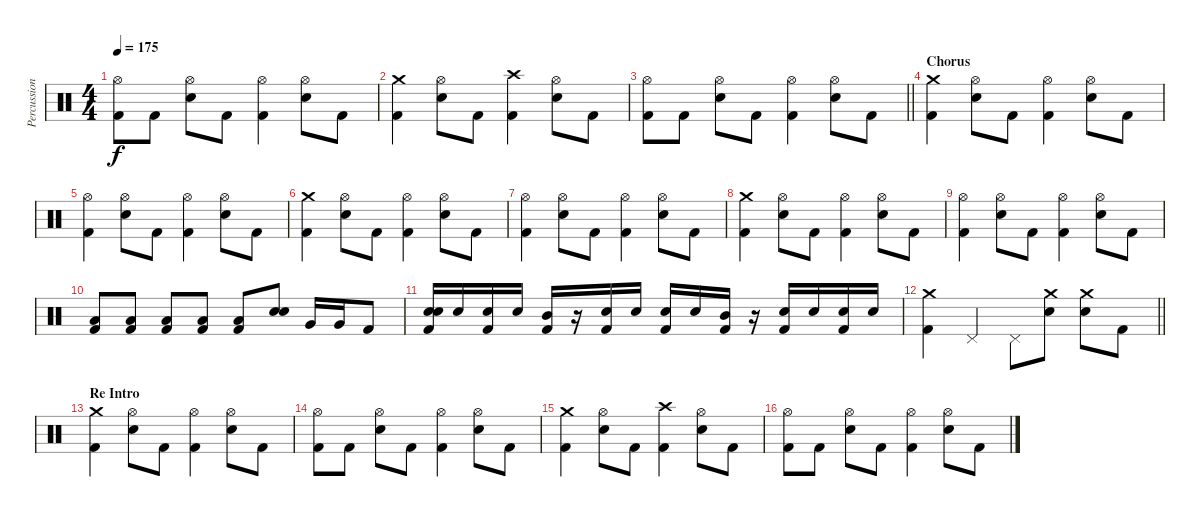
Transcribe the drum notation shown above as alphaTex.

\track ("Percussion" "Percussion") {instrument percussion}
\staff {score}
\articulation defaults
\ts (4 4)
\tempo 175
\clef neutral
\ks c
("Hi-Hat (open)" "Kick (hit) 2").8{dy f} "Kick (hit) 2".8 ("Hi-Hat (open)" "Electric Snare (hit)").8 "Kick (hit) 2".8 ("Hi-Hat (open)" "Kick (hit) 2").4 ("Hi-Hat (open)" "Electric Snare (hit)").8 "Kick (hit) 2".8 |
("Crash medium (hit)" "Kick (hit) 2").4 ("Hi-Hat (open)" "Electric Snare (hit)").8 "Kick (hit) 2".8 ("Crash high (hit)" "Kick (hit) 2").4 ("Hi-Hat (open)" "Electric Snare (hit)").8 "Kick (hit) 2".8 |
\barLineRight lightlight
("Hi-Hat (open)" "Kick (hit) 2").8 "Kick (hit) 2".8 ("Hi-Hat (open)" "Electric Snare (hit)").8 "Kick (hit) 2".8 ("Hi-Hat (open)" "Kick (hit) 2").4 ("Hi-Hat (open)" "Electric Snare (hit)").8 "Kick (hit) 2".8 |
\section ("" "Chorus")
("Crash medium (hit)" "Kick (hit) 2").4 ("Hi-Hat (open)" "Electric Snare (hit)").8 "Kick (hit) 2".8 ("Hi-Hat (open)" "Kick (hit) 2").4 ("Hi-Hat (open)" "Electric Snare (hit)").8 "Kick (hit) 2".8 |
("Hi-Hat (open)" "Kick (hit) 2").4 ("Hi-Hat (open)" "Electric Snare (hit)").8 "Kick (hit) 2".8 ("Hi-Hat (open)" "Kick (hit) 2").4 ("Hi-Hat (open)" "Electric Snare (hit)").8 "Kick (hit) 2".8 |
("Crash medium (hit)" "Kick (hit) 2").4 ("Hi-Hat (open)" "Electric Snare (hit)").8 "Kick (hit) 2".8 ("Hi-Hat (open)" "Kick (hit) 2").4 ("Hi-Hat (open)" "Electric Snare (hit)").8 "Kick (hit) 2".8 |
("Hi-Hat (open)" "Kick (hit) 2").4 ("Hi-Hat (open)" "Electric Snare (hit)").8 "Kick (hit) 2".8 ("Hi-Hat (open)" "Kick (hit) 2").4 ("Hi-Hat (open)" "Electric Snare (hit)").8 "Kick (hit) 2".8 |
("Crash medium (hit)" "Kick (hit) 2").4 ("Hi-Hat (open)" "Electric Snare (hit)").8 "Kick (hit) 2".8 ("Hi-Hat (open)" "Kick (hit) 2").4 ("Hi-Hat (open)" "Electric Snare (hit)").8 "Kick (hit) 2".8 |
("Hi-Hat (open)" "Kick (hit) 2").4 ("Hi-Hat (open)" "Electric Snare (hit)").8 "Kick (hit) 2".8 ("Hi-Hat (open)" "Kick (hit) 2").4 ("Hi-Hat (open)" "Electric Snare (hit)").8 "Kick (hit) 2".8 |
("Low Floor Tom (hit)" "Kick (hit) 2").8 ("Low Floor Tom (hit)" "Kick (hit) 2").8 ("Low Floor Tom (hit)" "Kick (hit) 2").8 ("Low Floor Tom (hit)" "Kick (hit) 2").8 ("Low Floor Tom (hit)" "Kick (hit) 2").8 ("Electric Snare (hit)" "Electric Snare (hit)").8 "Very Low Tom (hit)".16 "Very Low Tom (hit)".16 "Kick (hit) 2".8 |
("Electric Snare (hit)" "Electric Snare (hit)" "Kick (hit) 2").16 "Electric Snare (hit)".16 ("Electric Snare (hit)" "Kick (hit) 2").16 "Electric Snare (hit)".16 ("Mid Tom (hit)" "Kick (hit) 2").16 r.16 ("Electric Snare (hit)" "Kick (hit) 2").16 "Electric Snare (hit)".16 ("Electric Snare (hit)" "Kick (hit) 2").16 "Electric Snare (hit)".16 ("Mid Tom (hit)" "Kick (hit) 2").16 r.16 ("Electric Snare (hit)" "Kick (hit) 2").16 "Electric Snare (hit)".16 ("Electric Snare (hit)" "Kick (hit) 2").16 "Electric Snare (hit)".16 |
\barLineRight lightlight
("Crash medium (hit)" "Kick (hit) 2").4 "Pedal Hi-Hat (hit)".4 "Pedal Hi-Hat (hit)".8 ("Crash medium (hit)" "Electric Snare (hit)").8 ("Crash medium (hit)" "Electric Snare (hit)").8 "Kick (hit) 2".8 |
\section ("" "Re Intro")
("Crash medium (hit)" "Kick (hit) 2").4 ("Hi-Hat (open)" "Electric Snare (hit)").8 "Kick (hit) 2".8 ("Hi-Hat (open)" "Kick (hit) 2").4 ("Hi-Hat (open)" "Electric Snare (hit)").8 "Kick (hit) 2".8 |
("Hi-Hat (open)" "Kick (hit) 2").8 "Kick (hit) 2".8 ("Hi-Hat (open)" "Electric Snare (hit)").8 "Kick (hit) 2".8 ("Hi-Hat (open)" "Kick (hit) 2").4 ("Hi-Hat (open)" "Electric Snare (hit)").8 "Kick (hit) 2".8 |
("Crash medium (hit)" "Kick (hit) 2").4 ("Hi-Hat (open)" "Electric Snare (hit)").8 "Kick (hit) 2".8 ("Crash high (hit)" "Kick (hit) 2").4 ("Hi-Hat (open)" "Electric Snare (hit)").8 "Kick (hit) 2".8 |
("Hi-Hat (open)" "Kick (hit) 2").8 "Kick (hit) 2".8 ("Hi-Hat (open)" "Electric Snare (hit)").8 "Kick (hit) 2".8 ("Hi-Hat (open)" "Kick (hit) 2").4 ("Hi-Hat (open)" "Electric Snare (hit)").8 "Kick (hit) 2".8
